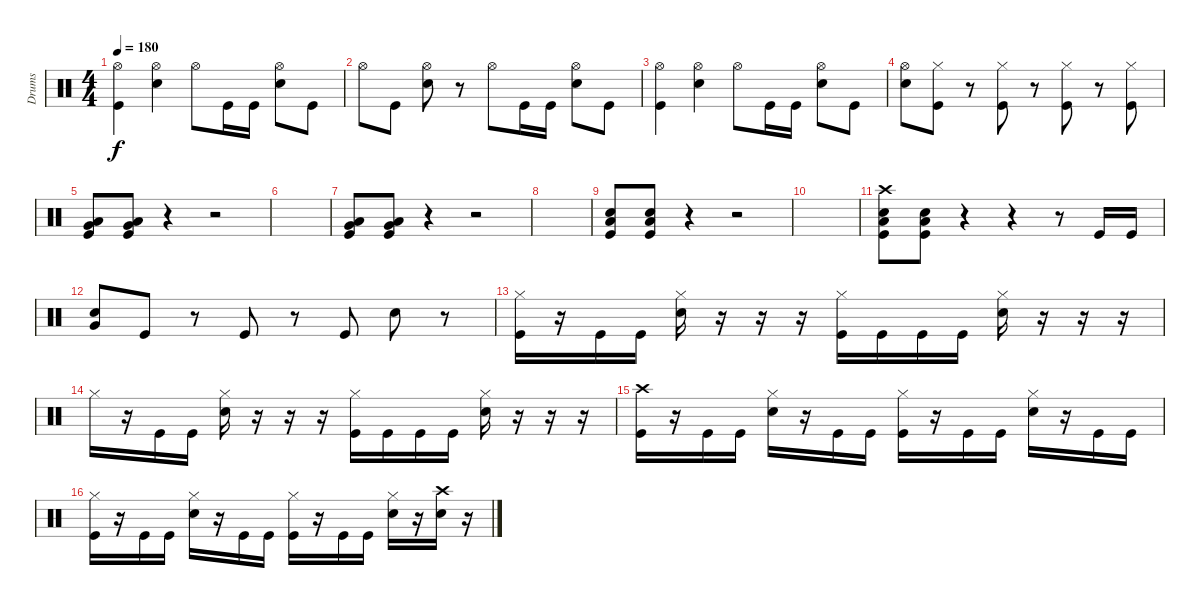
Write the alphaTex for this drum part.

\track ("Drums" "Drums") {instrument percussion}
\staff {score}
\articulation defaults
\ts (4 4)
\tempo 180
\clef neutral
\ks c
("Hi-Hat (open)" "Kick (hit)").4{dy f} ("Hi-Hat (open)" "Snare (hit) 2").4 "Hi-Hat (open)".8 "Kick (hit)".16 "Kick (hit)".16 ("Hi-Hat (open)" "Snare (hit) 2").8 "Kick (hit)".8 |
"Hi-Hat (open)".8 "Kick (hit)".8 ("Hi-Hat (open)" "Snare (hit) 2").8 r.8 "Hi-Hat (open)".8 "Kick (hit)".16 "Kick (hit)".16 ("Hi-Hat (open)" "Snare (hit) 2").8 "Kick (hit)".8 |
("Hi-Hat (open)" "Kick (hit)").4 ("Hi-Hat (open)" "Snare (hit) 2").4 "Hi-Hat (open)".8 "Kick (hit)".16 "Kick (hit)".16 ("Hi-Hat (open)" "Snare (hit) 2").8 "Kick (hit)".8 |
("Hi-Hat (open)" "Snare (hit) 2").8 ("Hi-Hat (closed)" "Kick (hit)").8 r.8 ("Hi-Hat (closed)" "Kick (hit)").8 r.8 ("Hi-Hat (closed)" "Kick (hit)").8 r.8 ("Hi-Hat (closed)" "Kick (hit)").8 |
("Very Low Tom (hit)" "Low Floor Tom (hit)" "Kick (hit)").8 ("Very Low Tom (hit)" "Low Floor Tom (hit)" "Kick (hit)").8 r.4 r.2 |
|
("Very Low Tom (hit)" "Low Floor Tom (hit)" "Kick (hit)").8 ("Very Low Tom (hit)" "Low Floor Tom (hit)" "Kick (hit)").8 r.4 r.2 |
|
("Low Floor Tom (hit)" "Snare (hit) 2" "Kick (hit)").8 ("Low Floor Tom (hit)" "Snare (hit) 2" "Kick (hit)").8 r.4 r.2 |
|
("Crash high (hit)" "Low Floor Tom (hit)" "Snare (hit) 2" "Kick (hit)").8 ("Low Floor Tom (hit)" "Snare (hit) 2" "Kick (hit)").8 r.4 r.4 r.8 "Kick (hit)".16 "Kick (hit)".16 |
("Very Low Tom (hit)" "Snare (hit) 2").8 "Kick (hit)".8 r.8 "Kick (hit)".8 r.8 "Kick (hit)".8 "Snare (hit) 2".8 r.8 |
("Hi-Hat (closed)" "Kick (hit)").16 r.16 "Kick (hit)".16 "Kick (hit)".16 ("Hi-Hat (closed)" "Snare (hit) 2").16 r.16 r.16 r.16 ("Hi-Hat (closed)" "Kick (hit)").16 "Kick (hit)".16 "Kick (hit)".16 "Kick (hit)".16 ("Hi-Hat (closed)" "Snare (hit) 2").16 r.16 r.16 r.16 |
"Hi-Hat (closed)".16 r.16 "Kick (hit)".16 "Kick (hit)".16 ("Hi-Hat (closed)" "Snare (hit) 2").16 r.16 r.16 r.16 ("Hi-Hat (closed)" "Kick (hit)").16 "Kick (hit)".16 "Kick (hit)".16 "Kick (hit)".16 ("Hi-Hat (closed)" "Snare (hit) 2").16 r.16 r.16 r.16 |
("Crash high (hit)" "Kick (hit)").16 r.16 "Kick (hit)".16 "Kick (hit)".16 ("Hi-Hat (closed)" "Snare (hit) 2").16 r.16 "Kick (hit)".16 "Kick (hit)".16 ("Hi-Hat (closed)" "Kick (hit)").16 r.16 "Kick (hit)".16 "Kick (hit)".16 ("Hi-Hat (closed)" "Snare (hit) 2").16 r.16 "Kick (hit)".16 "Kick (hit)".16 |
("Hi-Hat (closed)" "Kick (hit)").16 r.16 "Kick (hit)".16 "Kick (hit)".16 ("Hi-Hat (closed)" "Snare (hit) 2").16 r.16 "Kick (hit)".16 "Kick (hit)".16 ("Hi-Hat (closed)" "Kick (hit)").16 r.16 "Kick (hit)".16 "Kick (hit)".16 ("Hi-Hat (closed)" "Snare (hit) 2").16 r.16 ("Crash high (hit)" "Snare (hit) 2").16 r.16
